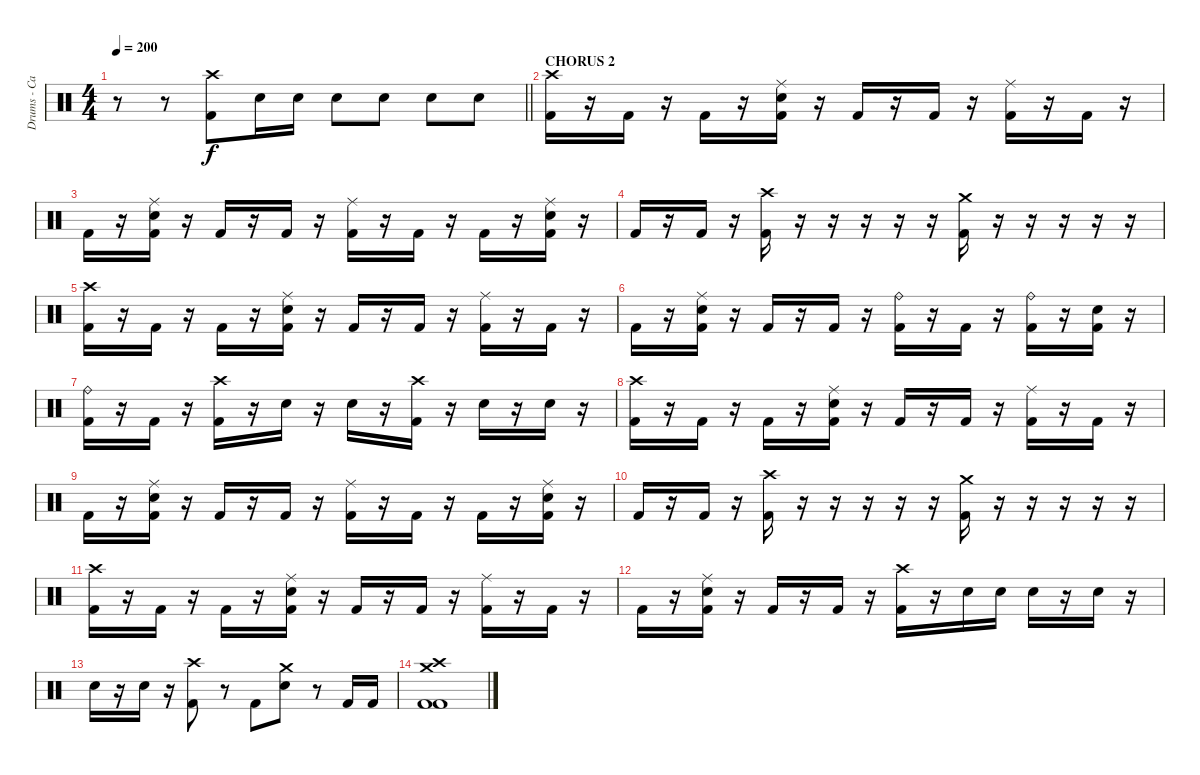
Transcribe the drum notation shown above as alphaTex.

\track ("Drums - Carlos Cruz" "Drums - Ca") {instrument percussion}
\staff {score}
\articulation defaults
\ts (4 4)
\tempo 200
\clef neutral
\barLineRight lightlight
\ks c
r.8{dy mf} r.8 ("Crash high (hit)" "Kick (hit) 2").8{dy f} "Snare (hit) 2".16 "Snare (hit) 2".16 "Snare (hit) 2".8 "Snare (hit) 2".8 "Snare (hit) 2".8 "Snare (hit) 2".8 |
\section ("" "CHORUS 2")
("Crash high (hit)" "Kick (hit) 2").16 r.16 "Kick (hit) 2".16 r.16 "Kick (hit) 2".16 r.16 ("Ride (middle)" "Snare (hit) 2" "Kick (hit) 2").16 r.16 "Kick (hit) 2".16 r.16 "Kick (hit) 2".16 r.16 ("Ride (middle)" "Kick (hit) 2").16 r.16 "Kick (hit) 2".16 r.16 |
"Kick (hit) 2".16 r.16 ("Ride (middle)" "Snare (hit) 2" "Kick (hit) 2").16 r.16 "Kick (hit) 2".16 r.16 "Kick (hit) 2".16 r.16 ("Ride (middle)" "Kick (hit) 2").16 r.16 "Kick (hit) 2".16 r.16 "Kick (hit) 2".16 r.16 ("Ride (middle)" "Snare (hit) 2" "Kick (hit) 2").16 r.16 |
"Kick (hit) 2".16 r.16 "Kick (hit) 2".16 r.16 ("Crash high (hit)" "Kick (hit) 2").16 r.16 r.16 r.16 r.16 r.16 ("Crash medium (hit)" "Kick (hit) 2").16 r.16 r.16 r.16 r.16 r.16 |
("Crash high (hit)" "Kick (hit) 2").16 r.16 "Kick (hit) 2".16 r.16 "Kick (hit) 2".16 r.16 ("Ride (middle)" "Snare (hit) 2" "Kick (hit) 2").16 r.16 "Kick (hit) 2".16 r.16 "Kick (hit) 2".16 r.16 ("Ride (middle)" "Kick (hit) 2").16 r.16 "Kick (hit) 2".16 r.16 |
"Kick (hit) 2".16 r.16 ("Ride (middle)" "Snare (hit) 2" "Kick (hit) 2").16 r.16 "Kick (hit) 2".16 r.16 "Kick (hit) 2".16 r.16 ("Ride (bell)" "Kick (hit) 2").16 r.16 "Kick (hit) 2".16 r.16 ("Ride (bell)" "Kick (hit) 2").16 r.16 ("Snare (hit) 2" "Kick (hit) 2").16 r.16 |
("Ride (bell)" "Kick (hit) 2").16 r.16 "Kick (hit) 2".16 r.16 ("Crash high (hit)" "Kick (hit) 2").16 r.16 "Snare (hit) 2".16 r.16 "Snare (hit) 2".16 r.16 ("Crash high (hit)" "Kick (hit) 2").16 r.16 "Snare (hit) 2".16 r.16 "Snare (hit) 2".16 r.16 |
("Crash high (hit)" "Kick (hit) 2").16 r.16 "Kick (hit) 2".16 r.16 "Kick (hit) 2".16 r.16 ("Ride (middle)" "Snare (hit) 2" "Kick (hit) 2").16 r.16 "Kick (hit) 2".16 r.16 "Kick (hit) 2".16 r.16 ("Ride (middle)" "Kick (hit) 2").16 r.16 "Kick (hit) 2".16 r.16 |
"Kick (hit) 2".16 r.16 ("Ride (middle)" "Snare (hit) 2" "Kick (hit) 2").16 r.16 "Kick (hit) 2".16 r.16 "Kick (hit) 2".16 r.16 ("Ride (middle)" "Kick (hit) 2").16 r.16 "Kick (hit) 2".16 r.16 "Kick (hit) 2".16 r.16 ("Ride (middle)" "Snare (hit) 2" "Kick (hit) 2").16 r.16 |
"Kick (hit) 2".16 r.16 "Kick (hit) 2".16 r.16 ("Crash high (hit)" "Kick (hit) 2").16 r.16 r.16 r.16 r.16 r.16 ("Crash medium (hit)" "Kick (hit) 2").16 r.16 r.16 r.16 r.16 r.16 |
("Crash high (hit)" "Kick (hit) 2").16 r.16 "Kick (hit) 2".16 r.16 "Kick (hit) 2".16 r.16 ("Ride (middle)" "Snare (hit) 2" "Kick (hit) 2").16 r.16 "Kick (hit) 2".16 r.16 "Kick (hit) 2".16 r.16 ("Ride (middle)" "Kick (hit) 2").16 r.16 "Kick (hit) 2".16 r.16 |
"Kick (hit) 2".16 r.16 ("Ride (middle)" "Snare (hit) 2" "Kick (hit) 2").16 r.16 "Kick (hit) 2".16 r.16 "Kick (hit) 2".16 r.16 ("Crash high (hit)" "Kick (hit) 2").16 r.16 "Snare (hit) 2".16 "Snare (hit) 2".16 "Snare (hit) 2".16 r.16 "Snare (hit) 2".16 r.16 |
"Snare (hit) 2".16 r.16 "Snare (hit) 2".16 r.16 ("Crash high (hit)" "Kick (hit) 2").8 r.8 "Kick (hit) 2".8 ("Crash medium (hit)" "Snare (hit) 2").8 r.8 "Kick (hit) 2".16 "Kick (hit) 2".16 |
("Crash medium (hit)" "Crash high (hit)" "Kick (hit) 2" "Kick (hit) 2").1
